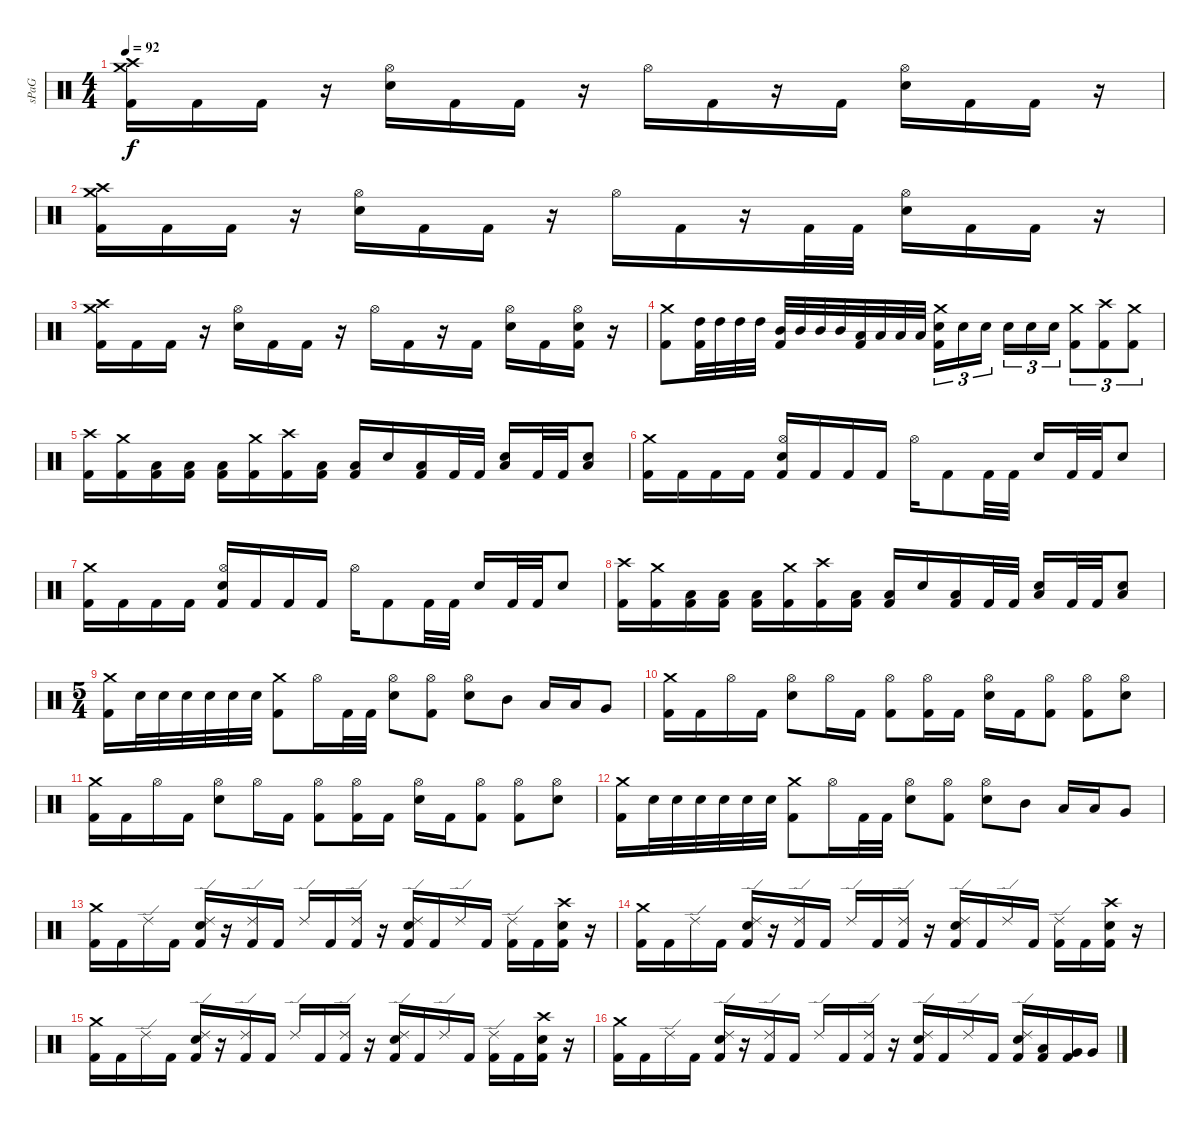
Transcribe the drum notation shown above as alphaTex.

\track ("sPaG" "sPaG") {instrument percussion}
\staff {score}
\articulation defaults
\ts (4 4)
\tempo 92
\clef neutral
\ks c
("Crash medium (hit)" "Crash high (hit)" "Kick (hit) 2").16{dy f} "Kick (hit) 2".16 "Kick (hit) 2".16 r.16 ("Hi-Hat (open)" "Snare (hit) 2").16 "Kick (hit) 2".16 "Kick (hit) 2".16 r.16 "Hi-Hat (open)".16 "Kick (hit) 2".16 r.16 "Kick (hit) 2".16 ("Hi-Hat (open)" "Snare (hit) 2").16 "Kick (hit) 2".16 "Kick (hit) 2".16 r.16 |
("Crash medium (hit)" "Crash high (hit)" "Kick (hit) 2").16 "Kick (hit) 2".16 "Kick (hit) 2".16 r.16 ("Hi-Hat (open)" "Snare (hit) 2").16 "Kick (hit) 2".16 "Kick (hit) 2".16 r.16 "Hi-Hat (open)".16 "Kick (hit) 2".16 r.16 "Kick (hit) 2".32 "Kick (hit) 2".32 ("Hi-Hat (open)" "Snare (hit) 2").16 "Kick (hit) 2".16 "Kick (hit) 2".16 r.16 |
("Crash medium (hit)" "Crash high (hit)" "Kick (hit) 2").16 "Kick (hit) 2".16 "Kick (hit) 2".16 r.16 ("Hi-Hat (open)" "Snare (hit) 2").16 "Kick (hit) 2".16 "Kick (hit) 2".16 r.16 "Hi-Hat (open)".16 "Kick (hit) 2".16 r.16 "Kick (hit) 2".16 ("Hi-Hat (open)" "Snare (hit) 2").16 "Kick (hit) 2".16 ("Hi-Hat (open)" "Snare (hit) 2" "Kick (hit) 2").16 r.16 |
("Crash medium (hit)" "Kick (hit) 2").8 ("High Tom (hit)" "Kick (hit) 2").32 "High Tom (hit)".32 "High Tom (hit)".32 "High Tom (hit)".32 ("Mid Tom (hit)" "Kick (hit) 2").32 "Mid Tom (hit)".32 "Mid Tom (hit)".32 "Mid Tom (hit)".32 ("Low Tom (hit)" "Kick (hit) 2").32 "Low Tom (hit)".32 "Low Tom (hit)".32 "Low Tom (hit)".32 ("Crash medium (hit)" "Snare (hit) 2" "Kick (hit) 2").16{tu (3 2)} "Snare (hit) 2".16{tu (3 2)} "Snare (hit) 2".16{tu (3 2)} "Snare (hit) 2".16{tu (3 2)} "Snare (hit) 2".16{tu (3 2)} "Snare (hit) 2".16{tu (3 2)} ("Crash medium (hit)" "Kick (hit) 2").8{tu (3 2)} ("Crash high (hit)" "Kick (hit) 2").8{tu (3 2)} ("Crash medium (hit)" "Kick (hit) 2").8{tu (3 2)} |
("Crash high (hit)" "Kick (hit) 2").16 ("Crash medium (hit)" "Kick (hit) 2").16 ("Low Tom (hit)" "Kick (hit) 2").16 ("Low Tom (hit)" "Kick (hit) 2").16 ("Low Floor Tom (hit)" "Kick (hit) 2").16 ("Crash medium (hit)" "Kick (hit) 2").16 ("Crash high (hit)" "Kick (hit) 2").16 ("Low Tom (hit)" "Kick (hit) 2").16 ("Low Floor Tom (hit)" "Kick (hit) 2").16 "Snare (hit) 2".16 ("Low Tom (hit)" "Kick (hit) 2").16 "Kick (hit) 2".32 "Kick (hit) 2".32 ("Low Floor Tom (hit)" "Snare (hit) 2").16 "Kick (hit) 2".32 "Kick (hit) 2".32 ("Low Floor Tom (hit)" "Snare (hit) 2").8 |
("Crash medium (hit)" "Kick (hit) 2").16 "Kick (hit) 2".16 "Kick (hit) 2".16 "Kick (hit) 2".16 ("Hi-Hat (open)" "Snare (hit) 2" "Kick (hit) 2").16 "Kick (hit) 2".16 "Kick (hit) 2".16 "Kick (hit) 2".16 "Hi-Hat (open)".16 "Kick (hit) 2".8 "Kick (hit) 2".32 "Kick (hit) 2".32 "Snare (hit) 2".16 "Kick (hit) 2".32 "Kick (hit) 2".32 "Snare (hit) 2".8 |
("Crash medium (hit)" "Kick (hit) 2").16 "Kick (hit) 2".16 "Kick (hit) 2".16 "Kick (hit) 2".16 ("Hi-Hat (open)" "Snare (hit) 2" "Kick (hit) 2").16 "Kick (hit) 2".16 "Kick (hit) 2".16 "Kick (hit) 2".16 "Hi-Hat (open)".16 "Kick (hit) 2".8 "Kick (hit) 2".32 "Kick (hit) 2".32 "Snare (hit) 2".16 "Kick (hit) 2".32 "Kick (hit) 2".32 "Snare (hit) 2".8 |
("Crash high (hit)" "Kick (hit) 2").16 ("Crash medium (hit)" "Kick (hit) 2").16 ("Low Tom (hit)" "Kick (hit) 2").16 ("Low Tom (hit)" "Kick (hit) 2").16 ("Low Floor Tom (hit)" "Kick (hit) 2").16 ("Crash medium (hit)" "Kick (hit) 2").16 ("Crash high (hit)" "Kick (hit) 2").16 ("Low Tom (hit)" "Kick (hit) 2").16 ("Low Floor Tom (hit)" "Kick (hit) 2").16 "Snare (hit) 2".16 ("Low Tom (hit)" "Kick (hit) 2").16 "Kick (hit) 2".32 "Kick (hit) 2".32 ("Low Floor Tom (hit)" "Snare (hit) 2").16 "Kick (hit) 2".32 "Kick (hit) 2".32 ("Low Floor Tom (hit)" "Snare (hit) 2").8 |
\ts (5 4)
("Crash medium (hit)" "Kick (hit) 2").16 "Snare (hit) 2".32 "Snare (hit) 2".32 "Snare (hit) 2".32 "Snare (hit) 2".32 "Snare (hit) 2".32 "Snare (hit) 2".32 ("Crash medium (hit)" "Kick (hit) 2").8 "Hi-Hat (open)".16 "Kick (hit) 2".32 "Kick (hit) 2".32 ("Hi-Hat (open)" "Snare (hit) 2").8 ("Hi-Hat (open)" "Kick (hit) 2").8 ("Hi-Hat (open)" "Snare (hit) 2").8 "Mid Tom (hit)".8 "Low Tom (hit)".16 "Low Tom (hit)".16 "Very Low Tom (hit)".8 |
("Crash medium (hit)" "Kick (hit) 2").16 "Kick (hit) 2".16 "Hi-Hat (open)".16 "Kick (hit) 2".16 ("Hi-Hat (open)" "Snare (hit) 2").8 "Hi-Hat (open)".16 "Kick (hit) 2".16 ("Hi-Hat (open)" "Kick (hit) 2").8 ("Hi-Hat (open)" "Kick (hit) 2").16 "Kick (hit) 2".16 ("Hi-Hat (open)" "Snare (hit) 2").16 "Kick (hit) 2".16 ("Hi-Hat (open)" "Kick (hit) 2").8 ("Hi-Hat (open)" "Kick (hit) 2").8 ("Hi-Hat (open)" "Snare (hit) 2").8 |
("Crash medium (hit)" "Kick (hit) 2").16 "Kick (hit) 2".16 "Hi-Hat (open)".16 "Kick (hit) 2".16 ("Hi-Hat (open)" "Snare (hit) 2").8 "Hi-Hat (open)".16 "Kick (hit) 2".16 ("Hi-Hat (open)" "Kick (hit) 2").8 ("Hi-Hat (open)" "Kick (hit) 2").16 "Kick (hit) 2".16 ("Hi-Hat (open)" "Snare (hit) 2").16 "Kick (hit) 2".16 ("Hi-Hat (open)" "Kick (hit) 2").8 ("Hi-Hat (open)" "Kick (hit) 2").8 ("Hi-Hat (open)" "Snare (hit) 2").8 |
("Crash medium (hit)" "Kick (hit) 2").16 "Snare (hit) 2".32 "Snare (hit) 2".32 "Snare (hit) 2".32 "Snare (hit) 2".32 "Snare (hit) 2".32 "Snare (hit) 2".32 ("Crash medium (hit)" "Kick (hit) 2").8 "Hi-Hat (open)".16 "Kick (hit) 2".32 "Kick (hit) 2".32 ("Hi-Hat (open)" "Snare (hit) 2").8 ("Hi-Hat (open)" "Kick (hit) 2").8 ("Hi-Hat (open)" "Snare (hit) 2").8 "Mid Tom (hit)".8 "Low Tom (hit)".16 "Low Tom (hit)".16 "Very Low Tom (hit)".8 |
("Crash medium (hit)" "Kick (hit) 2").16 "Kick (hit) 2".16 "Ride (edge) 2".16 "Kick (hit) 2".16 ("Ride (edge) 2" "Snare (hit) 2" "Kick (hit) 2").16 r.16 ("Ride (edge) 2" "Kick (hit) 2").16 "Kick (hit) 2".16 "Ride (edge) 2".16 "Kick (hit) 2".16 ("Ride (edge) 2" "Kick (hit) 2").16 r.16 ("Ride (edge) 2" "Snare (hit) 2" "Kick (hit) 2").16 "Kick (hit) 2".16 "Ride (edge) 2".16 "Kick (hit) 2".16 ("Ride (edge) 2" "Kick (hit) 2").16 "Kick (hit) 2".16 ("Crash high (hit)" "Snare (hit) 2" "Kick (hit) 2").16 r.16 |
("Crash medium (hit)" "Kick (hit) 2").16 "Kick (hit) 2".16 "Ride (edge) 2".16 "Kick (hit) 2".16 ("Ride (edge) 2" "Snare (hit) 2" "Kick (hit) 2").16 r.16 ("Ride (edge) 2" "Kick (hit) 2").16 "Kick (hit) 2".16 "Ride (edge) 2".16 "Kick (hit) 2".16 ("Ride (edge) 2" "Kick (hit) 2").16 r.16 ("Ride (edge) 2" "Snare (hit) 2" "Kick (hit) 2").16 "Kick (hit) 2".16 "Ride (edge) 2".16 "Kick (hit) 2".16 ("Ride (edge) 2" "Kick (hit) 2").16 "Kick (hit) 2".16 ("Crash high (hit)" "Snare (hit) 2" "Kick (hit) 2").16 r.16 |
("Crash medium (hit)" "Kick (hit) 2").16 "Kick (hit) 2".16 "Ride (edge) 2".16 "Kick (hit) 2".16 ("Ride (edge) 2" "Snare (hit) 2" "Kick (hit) 2").16 r.16 ("Ride (edge) 2" "Kick (hit) 2").16 "Kick (hit) 2".16 "Ride (edge) 2".16 "Kick (hit) 2".16 ("Ride (edge) 2" "Kick (hit) 2").16 r.16 ("Ride (edge) 2" "Snare (hit) 2" "Kick (hit) 2").16 "Kick (hit) 2".16 "Ride (edge) 2".16 "Kick (hit) 2".16 ("Ride (edge) 2" "Kick (hit) 2").16 "Kick (hit) 2".16 ("Crash high (hit)" "Snare (hit) 2" "Kick (hit) 2").16 r.16 |
("Crash medium (hit)" "Kick (hit) 2").16 "Kick (hit) 2".16 "Ride (edge) 2".16 "Kick (hit) 2".16 ("Ride (edge) 2" "Snare (hit) 2" "Kick (hit) 2").16 r.16 ("Ride (edge) 2" "Kick (hit) 2").16 "Kick (hit) 2".16 "Ride (edge) 2".16 "Kick (hit) 2".16 ("Ride (edge) 2" "Kick (hit) 2").16 r.16 ("Ride (edge) 2" "Snare (hit) 2" "Kick (hit) 2").16 "Kick (hit) 2".16 "Ride (edge) 2".16 "Kick (hit) 2".16 ("Ride (edge) 2" "Snare (hit) 2" "Kick (hit) 2").16 ("Low Tom (hit)" "Kick (hit) 2").16 ("Very Low Tom (hit)" "Kick (hit) 2").16 "Very Low Tom (hit)".16
